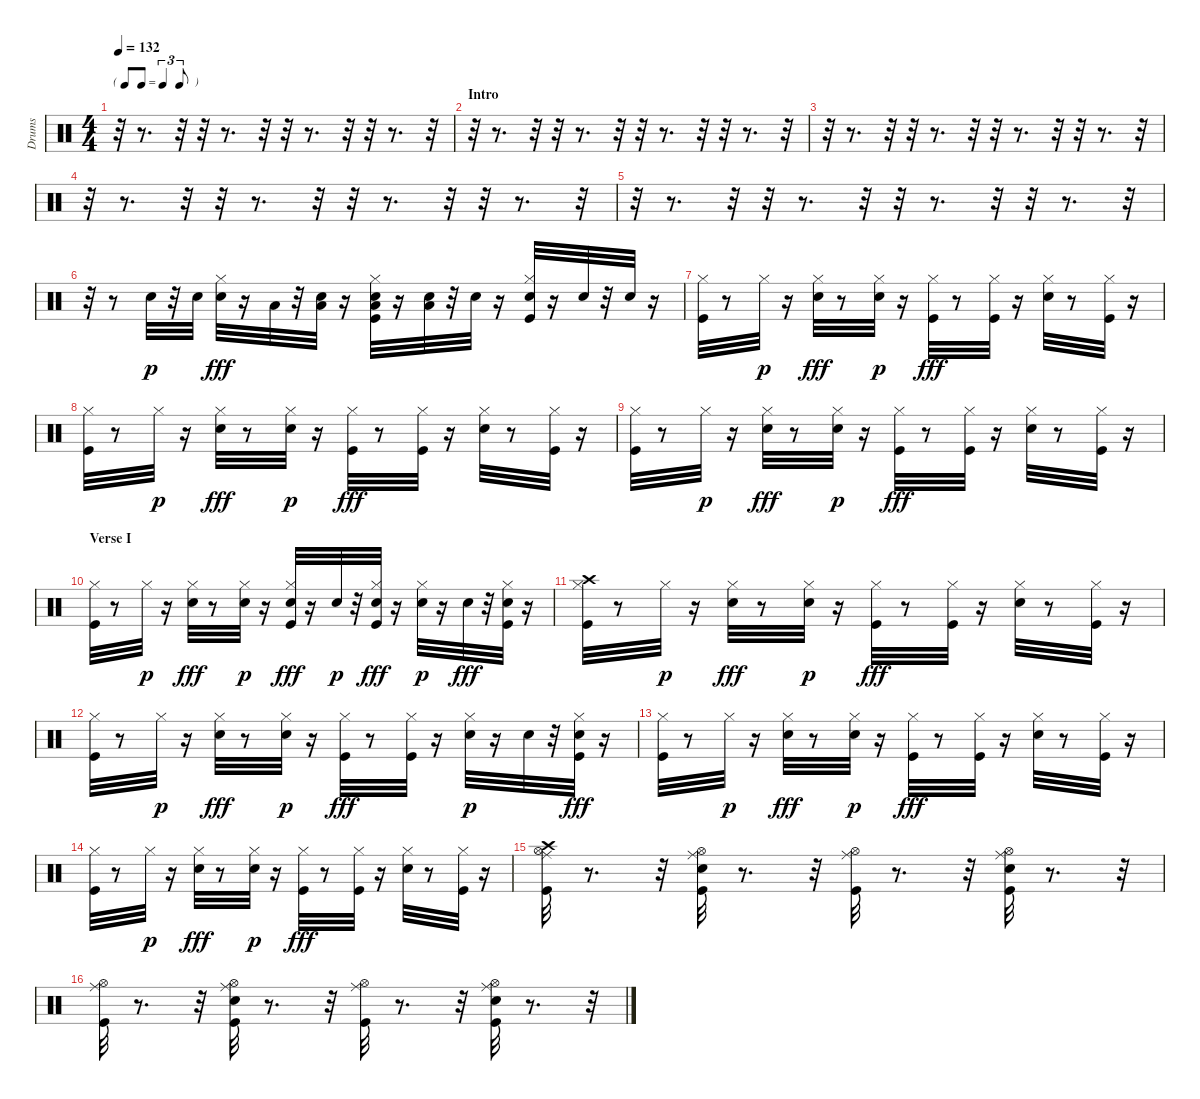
\track ("Drums" "Drums") {instrument percussion}
\staff {score}
\articulation defaults
\ts (4 4)
\tf triplet8th
\tempo 132
\clef neutral
\ks c
r.32{dy p} r.8{d} r.32 r.32 r.8{d} r.32 r.32 r.8{d} r.32 r.32 r.8{d} r.32 |
\section ("" "Intro")
r.32 r.8{d} r.32 r.32 r.8{d} r.32 r.32 r.8{d} r.32 r.32 r.8{d} r.32 |
r.32 r.8{d} r.32 r.32 r.8{d} r.32 r.32 r.8{d} r.32 r.32 r.8{d} r.32 |
r.32 r.8{d} r.32 r.32 r.8{d} r.32 r.32 r.8{d} r.32 r.32 r.8{d} r.32 |
r.32 r.8{d} r.32 r.32 r.8{d} r.32 r.32 r.8{d} r.32 r.32 r.8{d} r.32 |
r.32 r.8 "Snare (hit) 2".32 r.32 "Snare (hit) 2".32 ("Hi-Hat (closed)" "Snare (hit) 2").32{dy fff} r.16 "Low Tom (hit)".32 r.32 ("Snare (hit) 2" "Low Tom (hit)").32 r.16 ("Hi-Hat (closed)" "Snare (hit) 2" "Kick (hit)" "Low Floor Tom (hit)").32 r.16 ("Snare (hit) 2" "Low Floor Tom (hit)").32 r.32 "Snare (hit) 2".32 r.16 ("Hi-Hat (closed)" "Snare (hit) 2" "Kick (hit)").32 r.16 "Snare (hit) 2".32 r.32 "Snare (hit) 2".32 r.16 |
("Hi-Hat (closed)" "Kick (hit)").32 r.8 "Hi-Hat (closed)".32{dy p} r.16 ("Hi-Hat (closed)" "Snare (hit) 2").32{dy fff} r.8 ("Hi-Hat (closed)" "Snare (hit) 2").32{dy p} r.16 ("Hi-Hat (closed)" "Kick (hit)").32{dy fff} r.8 ("Hi-Hat (closed)" "Kick (hit)").32 r.16 ("Hi-Hat (closed)" "Snare (hit) 2").32 r.8 ("Hi-Hat (closed)" "Kick (hit)").32 r.16 |
("Hi-Hat (closed)" "Kick (hit)").32 r.8 "Hi-Hat (closed)".32{dy p} r.16 ("Hi-Hat (closed)" "Snare (hit) 2").32{dy fff} r.8 ("Hi-Hat (closed)" "Snare (hit) 2").32{dy p} r.16 ("Hi-Hat (closed)" "Kick (hit)").32{dy fff} r.8 ("Hi-Hat (closed)" "Kick (hit)").32 r.16 ("Hi-Hat (closed)" "Snare (hit) 2").32 r.8 ("Hi-Hat (closed)" "Kick (hit)").32 r.16 |
("Hi-Hat (closed)" "Kick (hit)").32 r.8 "Hi-Hat (closed)".32{dy p} r.16 ("Hi-Hat (closed)" "Snare (hit) 2").32{dy fff} r.8 ("Hi-Hat (closed)" "Snare (hit) 2").32{dy p} r.16 ("Hi-Hat (closed)" "Kick (hit)").32{dy fff} r.8 ("Hi-Hat (closed)" "Kick (hit)").32 r.16 ("Hi-Hat (closed)" "Snare (hit) 2").32 r.8 ("Hi-Hat (closed)" "Kick (hit)").32 r.16 |
\section ("" "Verse I")
("Hi-Hat (closed)" "Kick (hit)").32 r.8 "Hi-Hat (closed)".32{dy p} r.16 ("Hi-Hat (closed)" "Snare (hit) 2").32{dy fff} r.8 ("Hi-Hat (closed)" "Snare (hit) 2").32{dy p} r.16 ("Hi-Hat (closed)" "Snare (hit) 2" "Kick (hit)").32{dy fff} r.16 "Snare (hit) 2".32{dy p} r.32 ("Hi-Hat (closed)" "Snare (hit) 2" "Kick (hit)").32{dy fff} r.16 ("Hi-Hat (closed)" "Snare (hit) 2").32{dy p} r.16 "Snare (hit) 2".32{dy fff} r.32 ("Hi-Hat (closed)" "Snare (hit) 2" "Kick (hit)").32 r.16 |
("Hi-Hat (closed)" "Kick (hit)" "Crash high (hit)").32 r.8 "Hi-Hat (closed)".32{dy p} r.16 ("Hi-Hat (closed)" "Snare (hit) 2").32{dy fff} r.8 ("Hi-Hat (closed)" "Snare (hit) 2").32{dy p} r.16 ("Hi-Hat (closed)" "Kick (hit)").32{dy fff} r.8 ("Hi-Hat (closed)" "Kick (hit)").32 r.16 ("Hi-Hat (closed)" "Snare (hit) 2").32 r.8 ("Hi-Hat (closed)" "Kick (hit)").32 r.16 |
("Hi-Hat (closed)" "Kick (hit)").32 r.8 "Hi-Hat (closed)".32{dy p} r.16 ("Hi-Hat (closed)" "Snare (hit) 2").32{dy fff} r.8 ("Hi-Hat (closed)" "Snare (hit) 2").32{dy p} r.16 ("Hi-Hat (closed)" "Kick (hit)").32{dy fff} r.8 ("Hi-Hat (closed)" "Kick (hit)").32 r.16 ("Hi-Hat (closed)" "Snare (hit) 2").32{dy p} r.16 "Snare (hit) 2".32 r.32 ("Hi-Hat (closed)" "Snare (hit) 2" "Kick (hit)").32{dy fff} r.16 |
("Hi-Hat (closed)" "Kick (hit)").32 r.8 "Hi-Hat (closed)".32{dy p} r.16 ("Hi-Hat (closed)" "Snare (hit) 2").32{dy fff} r.8 ("Hi-Hat (closed)" "Snare (hit) 2").32{dy p} r.16 ("Hi-Hat (closed)" "Kick (hit)").32{dy fff} r.8 ("Hi-Hat (closed)" "Kick (hit)").32 r.16 ("Hi-Hat (closed)" "Snare (hit) 2").32 r.8 ("Hi-Hat (closed)" "Kick (hit)").32 r.16 |
("Hi-Hat (closed)" "Kick (hit)").32 r.8 "Hi-Hat (closed)".32{dy p} r.16 ("Hi-Hat (closed)" "Snare (hit) 2").32{dy fff} r.8 ("Hi-Hat (closed)" "Snare (hit) 2").32{dy p} r.16 ("Hi-Hat (closed)" "Kick (hit)").32{dy fff} r.8 ("Hi-Hat (closed)" "Kick (hit)").32 r.16 ("Hi-Hat (closed)" "Snare (hit) 2").32 r.8 ("Hi-Hat (closed)" "Kick (hit)").32 r.16 |
("Kick (hit)" "Crash high (hit)" "Ride (middle)" "Hi-Hat (open)").32 r.8{d} r.32 ("Snare (hit) 2" "Kick (hit)" "Ride (middle)" "Hi-Hat (open)").32 r.8{d} r.32 ("Kick (hit)" "Ride (middle)" "Hi-Hat (open)").32 r.8{d} r.32 ("Snare (hit) 2" "Kick (hit)" "Ride (middle)" "Hi-Hat (open)").32 r.8{d} r.32 |
("Kick (hit)" "Ride (middle)" "Hi-Hat (open)").32 r.8{d} r.32 ("Snare (hit) 2" "Kick (hit)" "Ride (middle)" "Hi-Hat (open)").32 r.8{d} r.32 ("Kick (hit)" "Ride (middle)" "Hi-Hat (open)").32 r.8{d} r.32 ("Snare (hit) 2" "Kick (hit)" "Ride (middle)" "Hi-Hat (open)").32 r.8{d} r.32
